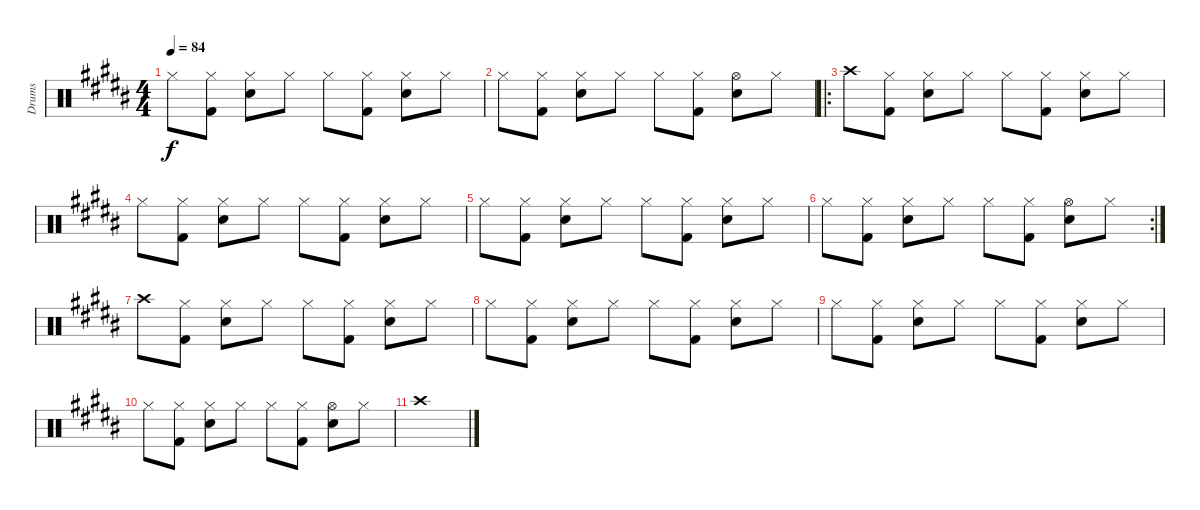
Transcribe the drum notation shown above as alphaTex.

\track ("Drums" "Drums") {instrument percussion}
\staff {score}
\articulation defaults
\ts (4 4)
\tempo 84
\clef neutral
\ks b "Hi-Hat (closed)".8{dy f}
("Hi-Hat (closed)" "Kick (hit) 2").8 ("Hi-Hat (closed)" "Snare (hit) 2").8 "Hi-Hat (closed)".8 "Hi-Hat (closed)".8 ("Hi-Hat (closed)" "Kick (hit) 2").8 ("Hi-Hat (closed)" "Snare (hit) 2").8 "Hi-Hat (closed)".8 |
"Hi-Hat (closed)".8 ("Hi-Hat (closed)" "Kick (hit) 2").8 ("Hi-Hat (closed)" "Snare (hit) 2").8 "Hi-Hat (closed)".8 "Hi-Hat (closed)".8 ("Hi-Hat (closed)" "Kick (hit) 2").8 ("Hi-Hat (open)" "Snare (hit) 2").8 "Hi-Hat (closed)".8 |
\ro "Crash high (hit)".8
("Hi-Hat (closed)" "Kick (hit) 2").8 ("Hi-Hat (closed)" "Snare (hit) 2").8 "Hi-Hat (closed)".8 "Hi-Hat (closed)".8 ("Hi-Hat (closed)" "Kick (hit) 2").8 ("Hi-Hat (closed)" "Snare (hit) 2").8 "Hi-Hat (closed)".8 |
"Hi-Hat (closed)".8 ("Hi-Hat (closed)" "Kick (hit) 2").8 ("Hi-Hat (closed)" "Snare (hit) 2").8 "Hi-Hat (closed)".8 "Hi-Hat (closed)".8 ("Hi-Hat (closed)" "Kick (hit) 2").8 ("Hi-Hat (closed)" "Snare (hit) 2").8 "Hi-Hat (closed)".8 |
"Hi-Hat (closed)".8 ("Hi-Hat (closed)" "Kick (hit) 2").8 ("Hi-Hat (closed)" "Snare (hit) 2").8 "Hi-Hat (closed)".8 "Hi-Hat (closed)".8 ("Hi-Hat (closed)" "Kick (hit) 2").8 ("Hi-Hat (closed)" "Snare (hit) 2").8 "Hi-Hat (closed)".8 |
\rc 2 "Hi-Hat (closed)".8
("Hi-Hat (closed)" "Kick (hit) 2").8 ("Hi-Hat (closed)" "Snare (hit) 2").8 "Hi-Hat (closed)".8 "Hi-Hat (closed)".8 ("Hi-Hat (closed)" "Kick (hit) 2").8 ("Hi-Hat (open)" "Snare (hit) 2").8 "Hi-Hat (closed)".8 |
"Crash high (hit)".8 ("Hi-Hat (closed)" "Kick (hit) 2").8 ("Hi-Hat (closed)" "Snare (hit) 2").8 "Hi-Hat (closed)".8 "Hi-Hat (closed)".8 ("Hi-Hat (closed)" "Kick (hit) 2").8 ("Hi-Hat (closed)" "Snare (hit) 2").8 "Hi-Hat (closed)".8 |
"Hi-Hat (closed)".8 ("Hi-Hat (closed)" "Kick (hit) 2").8 ("Hi-Hat (closed)" "Snare (hit) 2").8 "Hi-Hat (closed)".8 "Hi-Hat (closed)".8 ("Hi-Hat (closed)" "Kick (hit) 2").8 ("Hi-Hat (closed)" "Snare (hit) 2").8 "Hi-Hat (closed)".8 |
"Hi-Hat (closed)".8 ("Hi-Hat (closed)" "Kick (hit) 2").8 ("Hi-Hat (closed)" "Snare (hit) 2").8 "Hi-Hat (closed)".8 "Hi-Hat (closed)".8 ("Hi-Hat (closed)" "Kick (hit) 2").8 ("Hi-Hat (closed)" "Snare (hit) 2").8 "Hi-Hat (closed)".8 |
"Hi-Hat (closed)".8 ("Hi-Hat (closed)" "Kick (hit) 2").8 ("Hi-Hat (closed)" "Snare (hit) 2").8 "Hi-Hat (closed)".8 "Hi-Hat (closed)".8 ("Hi-Hat (closed)" "Kick (hit) 2").8 ("Hi-Hat (open)" "Snare (hit) 2").8 "Hi-Hat (closed)".8 |
"Crash high (hit)".1
